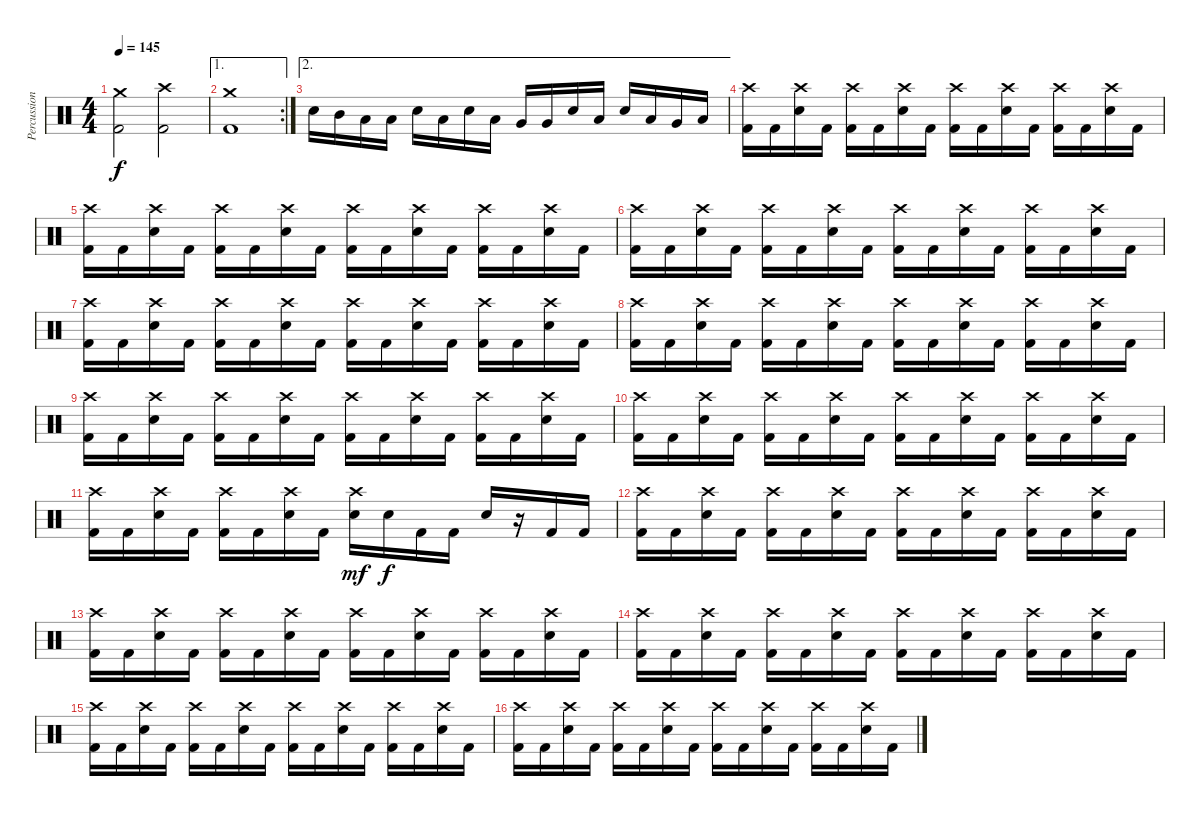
\track ("Percussion" "Percussion") {instrument percussion}
\staff {score}
\articulation defaults
\ts (4 4)
\tempo 145
\clef neutral
\ks c
("Crash medium (hit)" "Kick (hit) 2").2{dy f} ("Crash high (hit)" "Kick (hit) 2").2 |
\ae 1
\rc 2
("Crash medium (hit)" "Kick (hit) 2").1 |
\ae 2 "Electric Snare (hit)".16 "Mid Tom (hit)".16 "Low Tom (hit)".16 "Low Tom (hit)".16 "Electric Snare (hit)".16 "Low Tom (hit)".16 "Electric Snare (hit)".16 "Low Tom (hit)".16 "Very Low Tom (hit)".16 "Very Low Tom (hit)".16 "Electric Snare (hit)".16 "Low Tom (hit)".16 "Electric Snare (hit)".16 "Low Tom (hit)".16 "Very Low Tom (hit)".16 "Low Floor Tom (hit)".16
|
("Kick (hit) 2" "Crash high (hit)").16 "Kick (hit) 2".16 ("Electric Snare (hit)" "Crash high (hit)").16 "Kick (hit) 2".16 ("Kick (hit) 2" "Crash high (hit)").16 "Kick (hit) 2".16 ("Electric Snare (hit)" "Crash high (hit)").16 "Kick (hit) 2".16 ("Kick (hit) 2" "Crash high (hit)").16 "Kick (hit) 2".16 ("Electric Snare (hit)" "Crash high (hit)").16 "Kick (hit) 2".16 ("Kick (hit) 2" "Crash high (hit)").16 "Kick (hit) 2".16 ("Electric Snare (hit)" "Crash high (hit)").16 "Kick (hit) 2".16 |
("Kick (hit) 2" "Crash high (hit)").16 "Kick (hit) 2".16 ("Electric Snare (hit)" "Crash high (hit)").16 "Kick (hit) 2".16 ("Kick (hit) 2" "Crash high (hit)").16 "Kick (hit) 2".16 ("Electric Snare (hit)" "Crash high (hit)").16 "Kick (hit) 2".16 ("Kick (hit) 2" "Crash high (hit)").16 "Kick (hit) 2".16 ("Electric Snare (hit)" "Crash high (hit)").16 "Kick (hit) 2".16 ("Kick (hit) 2" "Crash high (hit)").16 "Kick (hit) 2".16 ("Electric Snare (hit)" "Crash high (hit)").16 "Kick (hit) 2".16 |
("Kick (hit) 2" "Crash high (hit)").16 "Kick (hit) 2".16 ("Electric Snare (hit)" "Crash high (hit)").16 "Kick (hit) 2".16 ("Kick (hit) 2" "Crash high (hit)").16 "Kick (hit) 2".16 ("Electric Snare (hit)" "Crash high (hit)").16 "Kick (hit) 2".16 ("Kick (hit) 2" "Crash high (hit)").16 "Kick (hit) 2".16 ("Electric Snare (hit)" "Crash high (hit)").16 "Kick (hit) 2".16 ("Kick (hit) 2" "Crash high (hit)").16 "Kick (hit) 2".16 ("Electric Snare (hit)" "Crash high (hit)").16 "Kick (hit) 2".16 |
("Kick (hit) 2" "Crash high (hit)").16 "Kick (hit) 2".16 ("Electric Snare (hit)" "Crash high (hit)").16 "Kick (hit) 2".16 ("Kick (hit) 2" "Crash high (hit)").16 "Kick (hit) 2".16 ("Electric Snare (hit)" "Crash high (hit)").16 "Kick (hit) 2".16 ("Kick (hit) 2" "Crash high (hit)").16 "Kick (hit) 2".16 ("Electric Snare (hit)" "Crash high (hit)").16 "Kick (hit) 2".16 ("Kick (hit) 2" "Crash high (hit)").16 "Kick (hit) 2".16 ("Electric Snare (hit)" "Crash high (hit)").16 "Kick (hit) 2".16 |
("Kick (hit) 2" "Crash high (hit)").16 "Kick (hit) 2".16 ("Electric Snare (hit)" "Crash high (hit)").16 "Kick (hit) 2".16 ("Kick (hit) 2" "Crash high (hit)").16 "Kick (hit) 2".16 ("Electric Snare (hit)" "Crash high (hit)").16 "Kick (hit) 2".16 ("Kick (hit) 2" "Crash high (hit)").16 "Kick (hit) 2".16 ("Electric Snare (hit)" "Crash high (hit)").16 "Kick (hit) 2".16 ("Kick (hit) 2" "Crash high (hit)").16 "Kick (hit) 2".16 ("Electric Snare (hit)" "Crash high (hit)").16 "Kick (hit) 2".16 |
("Kick (hit) 2" "Crash high (hit)").16 "Kick (hit) 2".16 ("Electric Snare (hit)" "Crash high (hit)").16 "Kick (hit) 2".16 ("Kick (hit) 2" "Crash high (hit)").16 "Kick (hit) 2".16 ("Electric Snare (hit)" "Crash high (hit)").16 "Kick (hit) 2".16 ("Kick (hit) 2" "Crash high (hit)").16 "Kick (hit) 2".16 ("Electric Snare (hit)" "Crash high (hit)").16 "Kick (hit) 2".16 ("Kick (hit) 2" "Crash high (hit)").16 "Kick (hit) 2".16 ("Electric Snare (hit)" "Crash high (hit)").16 "Kick (hit) 2".16 |
("Kick (hit) 2" "Crash high (hit)").16 "Kick (hit) 2".16 ("Electric Snare (hit)" "Crash high (hit)").16 "Kick (hit) 2".16 ("Kick (hit) 2" "Crash high (hit)").16 "Kick (hit) 2".16 ("Electric Snare (hit)" "Crash high (hit)").16 "Kick (hit) 2".16 ("Kick (hit) 2" "Crash high (hit)").16 "Kick (hit) 2".16 ("Electric Snare (hit)" "Crash high (hit)").16 "Kick (hit) 2".16 ("Kick (hit) 2" "Crash high (hit)").16 "Kick (hit) 2".16 ("Electric Snare (hit)" "Crash high (hit)").16 "Kick (hit) 2".16 |
("Kick (hit) 2" "Crash high (hit)").16 "Kick (hit) 2".16 ("Electric Snare (hit)" "Crash high (hit)").16 "Kick (hit) 2".16 ("Kick (hit) 2" "Crash high (hit)").16 "Kick (hit) 2".16 ("Electric Snare (hit)" "Crash high (hit)").16 "Kick (hit) 2".16 ("Electric Snare (hit)" "Crash high (hit)").16{dy mf} "Electric Snare (hit)".16{dy f} "Kick (hit) 2".16 "Kick (hit) 2".16 "Electric Snare (hit)".16 r.16 "Kick (hit) 2".16 "Kick (hit) 2".16 |
("Kick (hit) 2" "Crash high (hit)").16 "Kick (hit) 2".16 ("Electric Snare (hit)" "Crash high (hit)").16 "Kick (hit) 2".16 ("Kick (hit) 2" "Crash high (hit)").16 "Kick (hit) 2".16 ("Electric Snare (hit)" "Crash high (hit)").16 "Kick (hit) 2".16 ("Kick (hit) 2" "Crash high (hit)").16 "Kick (hit) 2".16 ("Electric Snare (hit)" "Crash high (hit)").16 "Kick (hit) 2".16 ("Kick (hit) 2" "Crash high (hit)").16 "Kick (hit) 2".16 ("Electric Snare (hit)" "Crash high (hit)").16 "Kick (hit) 2".16 |
("Kick (hit) 2" "Crash high (hit)").16 "Kick (hit) 2".16 ("Electric Snare (hit)" "Crash high (hit)").16 "Kick (hit) 2".16 ("Kick (hit) 2" "Crash high (hit)").16 "Kick (hit) 2".16 ("Electric Snare (hit)" "Crash high (hit)").16 "Kick (hit) 2".16 ("Kick (hit) 2" "Crash high (hit)").16 "Kick (hit) 2".16 ("Electric Snare (hit)" "Crash high (hit)").16 "Kick (hit) 2".16 ("Kick (hit) 2" "Crash high (hit)").16 "Kick (hit) 2".16 ("Electric Snare (hit)" "Crash high (hit)").16 "Kick (hit) 2".16 |
("Kick (hit) 2" "Crash high (hit)").16 "Kick (hit) 2".16 ("Electric Snare (hit)" "Crash high (hit)").16 "Kick (hit) 2".16 ("Kick (hit) 2" "Crash high (hit)").16 "Kick (hit) 2".16 ("Electric Snare (hit)" "Crash high (hit)").16 "Kick (hit) 2".16 ("Kick (hit) 2" "Crash high (hit)").16 "Kick (hit) 2".16 ("Electric Snare (hit)" "Crash high (hit)").16 "Kick (hit) 2".16 ("Kick (hit) 2" "Crash high (hit)").16 "Kick (hit) 2".16 ("Electric Snare (hit)" "Crash high (hit)").16 "Kick (hit) 2".16 |
("Kick (hit) 2" "Crash high (hit)").16 "Kick (hit) 2".16 ("Electric Snare (hit)" "Crash high (hit)").16 "Kick (hit) 2".16 ("Kick (hit) 2" "Crash high (hit)").16 "Kick (hit) 2".16 ("Electric Snare (hit)" "Crash high (hit)").16 "Kick (hit) 2".16 ("Kick (hit) 2" "Crash high (hit)").16 "Kick (hit) 2".16 ("Electric Snare (hit)" "Crash high (hit)").16 "Kick (hit) 2".16 ("Kick (hit) 2" "Crash high (hit)").16 "Kick (hit) 2".16 ("Electric Snare (hit)" "Crash high (hit)").16 "Kick (hit) 2".16 |
("Kick (hit) 2" "Crash high (hit)").16 "Kick (hit) 2".16 ("Electric Snare (hit)" "Crash high (hit)").16 "Kick (hit) 2".16 ("Kick (hit) 2" "Crash high (hit)").16 "Kick (hit) 2".16 ("Electric Snare (hit)" "Crash high (hit)").16 "Kick (hit) 2".16 ("Kick (hit) 2" "Crash high (hit)").16 "Kick (hit) 2".16 ("Electric Snare (hit)" "Crash high (hit)").16 "Kick (hit) 2".16 ("Kick (hit) 2" "Crash high (hit)").16 "Kick (hit) 2".16 ("Electric Snare (hit)" "Crash high (hit)").16 "Kick (hit) 2".16
